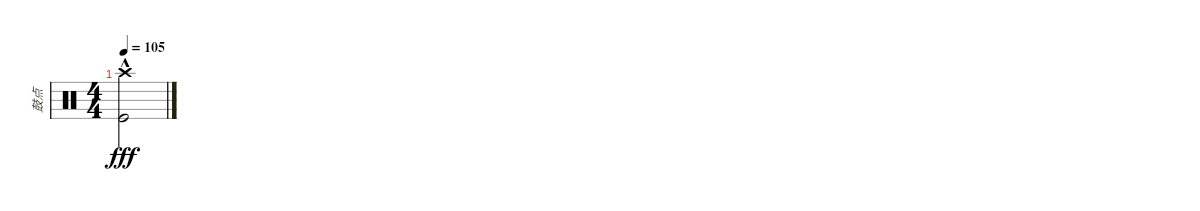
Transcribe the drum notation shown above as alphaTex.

\track ("鼓点" "鼓点") {instrument percussion}
\staff {score}
\articulation defaults
\ts (4 4)
\tempo 105
\clef neutral
\ks c
("Crash high (hit)"{hac} "Kick (hit)").2{dy fff}
